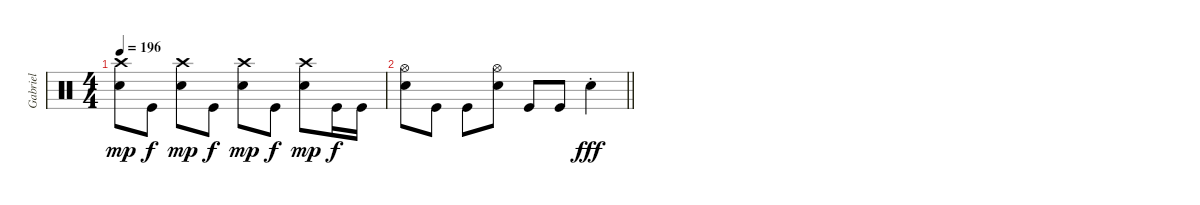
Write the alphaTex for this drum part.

\track ("Gabriel" "Gabriel") {instrument percussion}
\staff {score}
\articulation defaults
\ts (4 4)
\tempo 196
\clef neutral
\ks aminor
("Crash high (hit)" "Snare (hit) 2").8{dy mp} "Kick (hit)".8{dy f} ("Crash high (hit)" "Snare (hit) 2").8{dy mp} "Kick (hit)".8{dy f} ("Crash high (hit)" "Snare (hit) 2").8{dy mp} "Kick (hit)".8{dy f} ("Crash high (hit)" "Snare (hit) 2").8{dy mp} "Kick (hit)".16{dy f} "Kick (hit)".16 |
\barLineRight lightlight
("Hi-Hat (open)" "Snare (hit) 2").8 "Kick (hit)".8 "Kick (hit)".8 ("Hi-Hat (open)" "Snare (hit) 2").8 "Kick (hit)".8 "Kick (hit)".8 "Snare (hit) 2"{st}.4{dy fff}
